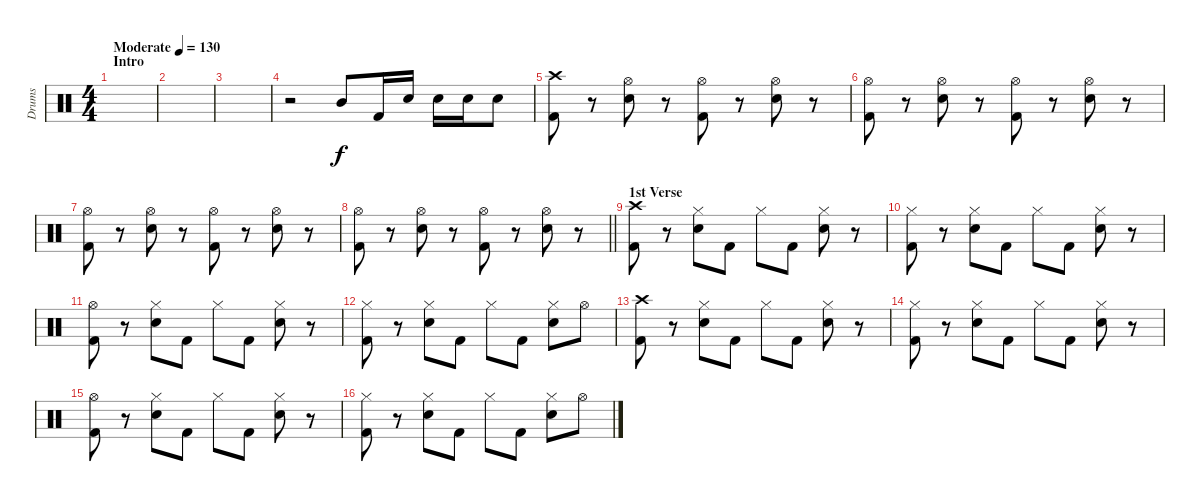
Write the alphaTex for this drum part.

\track ("Drums" "Drums") {instrument percussion}
\staff {score}
\articulation defaults
\ts (4 4)
\section ("" "Intro")
\tempo (130 "Moderate")
\clef neutral
\ks c
|
|
|
r.2 "Mid Tom (hit)".8 "Kick (hit) 2".16 "Snare (hit) 2".16 "Snare (hit) 2".16 "Snare (hit) 2".16 "Snare (hit) 2".8 |
("Crash high (hit)" "Kick (hit) 2").8 r.8 ("Hi-Hat (open)" "Snare (hit) 2").8 r.8 ("Hi-Hat (open)" "Kick (hit) 2").8 r.8 ("Hi-Hat (open)" "Snare (hit) 2").8 r.8 |
("Hi-Hat (open)" "Kick (hit) 2").8 r.8 ("Hi-Hat (open)" "Snare (hit) 2").8 r.8 ("Hi-Hat (open)" "Kick (hit) 2").8 r.8 ("Hi-Hat (open)" "Snare (hit) 2").8 r.8 |
("Hi-Hat (open)" "Kick (hit) 2").8 r.8 ("Hi-Hat (open)" "Snare (hit) 2").8 r.8 ("Hi-Hat (open)" "Kick (hit) 2").8 r.8 ("Hi-Hat (open)" "Snare (hit) 2").8 r.8 |
\barLineRight lightlight
("Hi-Hat (open)" "Kick (hit) 2").8 r.8 ("Hi-Hat (open)" "Snare (hit) 2").8 r.8 ("Hi-Hat (open)" "Kick (hit) 2").8 r.8 ("Hi-Hat (open)" "Snare (hit) 2").8 r.8 |
\section ("" "1st Verse")
("Crash high (hit)" "Kick (hit) 2").8 r.8 ("Hi-Hat (closed)" "Snare (hit) 2").8 "Kick (hit) 2".8 "Hi-Hat (closed)".8 "Kick (hit) 2".8 ("Hi-Hat (closed)" "Snare (hit) 2").8 r.8 |
("Hi-Hat (closed)" "Kick (hit) 2").8 r.8 ("Hi-Hat (closed)" "Snare (hit) 2").8 "Kick (hit) 2".8 "Hi-Hat (closed)".8 "Kick (hit) 2".8 ("Hi-Hat (closed)" "Snare (hit) 2").8 r.8 |
("Hi-Hat (open)" "Kick (hit) 2").8 r.8 ("Hi-Hat (closed)" "Snare (hit) 2").8 "Kick (hit) 2".8 "Hi-Hat (closed)".8 "Kick (hit) 2".8 ("Hi-Hat (closed)" "Snare (hit) 2").8 r.8 |
("Hi-Hat (closed)" "Kick (hit) 2").8 r.8 ("Hi-Hat (closed)" "Snare (hit) 2").8 "Kick (hit) 2".8 "Hi-Hat (closed)".8 "Kick (hit) 2".8 ("Hi-Hat (closed)" "Snare (hit) 2").8 "Hi-Hat (open)".8 |
("Crash high (hit)" "Kick (hit) 2").8 r.8 ("Hi-Hat (closed)" "Snare (hit) 2").8 "Kick (hit) 2".8 "Hi-Hat (closed)".8 "Kick (hit) 2".8 ("Hi-Hat (closed)" "Snare (hit) 2").8 r.8 |
("Hi-Hat (closed)" "Kick (hit) 2").8 r.8 ("Hi-Hat (closed)" "Snare (hit) 2").8 "Kick (hit) 2".8 "Hi-Hat (closed)".8 "Kick (hit) 2".8 ("Hi-Hat (closed)" "Snare (hit) 2").8 r.8 |
("Hi-Hat (open)" "Kick (hit) 2").8 r.8 ("Hi-Hat (closed)" "Snare (hit) 2").8 "Kick (hit) 2".8 "Hi-Hat (closed)".8 "Kick (hit) 2".8 ("Hi-Hat (closed)" "Snare (hit) 2").8 r.8 |
("Hi-Hat (closed)" "Kick (hit) 2").8 r.8 ("Hi-Hat (closed)" "Snare (hit) 2").8 "Kick (hit) 2".8 "Hi-Hat (closed)".8 "Kick (hit) 2".8 ("Hi-Hat (closed)" "Snare (hit) 2").8 "Hi-Hat (open)".8
